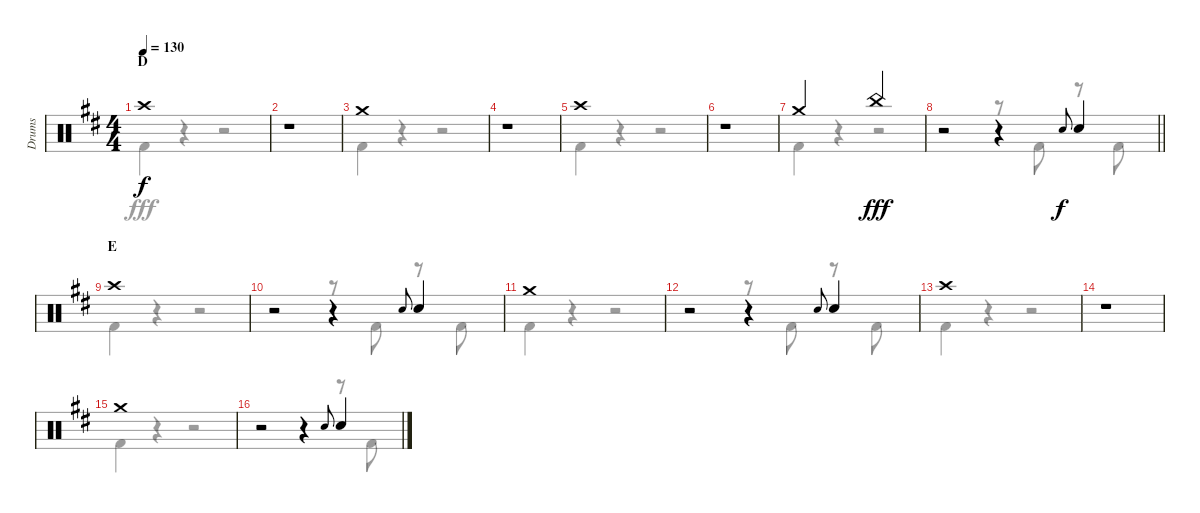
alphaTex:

\track ("Drums" "Drums") {instrument percussion}
\staff {score}
\articulation defaults
\voice
\ts (4 4)
\section ("" "D")
\tempo 130
\clef neutral
\ks d "Crash high (hit)".1{dy f}
|
r.1 |
"Crash medium (hit)".1 |
r.1 |
"Crash high (hit)".1 |
r.1 |
"Crash medium (hit)".2 "China (hit)".2{dy fff} |
\barLineRight lightlight
r.2 r.4 "Snare (hit) 2".8{gr onbeat dy f} "Snare (hit) 2".4 |
\section ("" "E")
"Crash high (hit)".1 |
r.2 r.4 "Snare (hit) 2".8{gr onbeat} "Snare (hit) 2".4 |
"Crash medium (hit)".1 |
r.2 r.4 "Snare (hit) 2".8{gr onbeat} "Snare (hit) 2".4 |
"Crash high (hit)".1 |
r.1 |
"Crash medium (hit)".1 |
r.2 r.4 "Snare (hit) 2".8{gr onbeat} "Snare (hit) 2".4
\voice
\clef neutral
\ottava regular
\simile none
\ks d "Kick (hit) 2".4{dy fff}
r.4 r.2 |
r.1 |
"Kick (hit) 2".4 r.4 r.2 |
r.1 |
"Kick (hit) 2".4 r.4 r.2 |
r.1 |
"Kick (hit) 2".4 r.4 r.2 |
\barLineRight lightlight
r.2 r.8 "Kick (hit) 2".8 r.8 "Kick (hit) 2".8 |
"Kick (hit) 2".4 r.4 r.2 |
r.2 r.8 "Kick (hit) 2".8 r.8 "Kick (hit) 2".8 |
"Kick (hit) 2".4 r.4 r.2 |
r.2 r.8 "Kick (hit) 2".8 r.8 "Kick (hit) 2".8 |
"Kick (hit) 2".4 r.4 r.2 |
r.1 |
"Kick (hit) 2".4 r.4 r.2 |
r.2 r.4 r.8 "Kick (hit) 2".8
